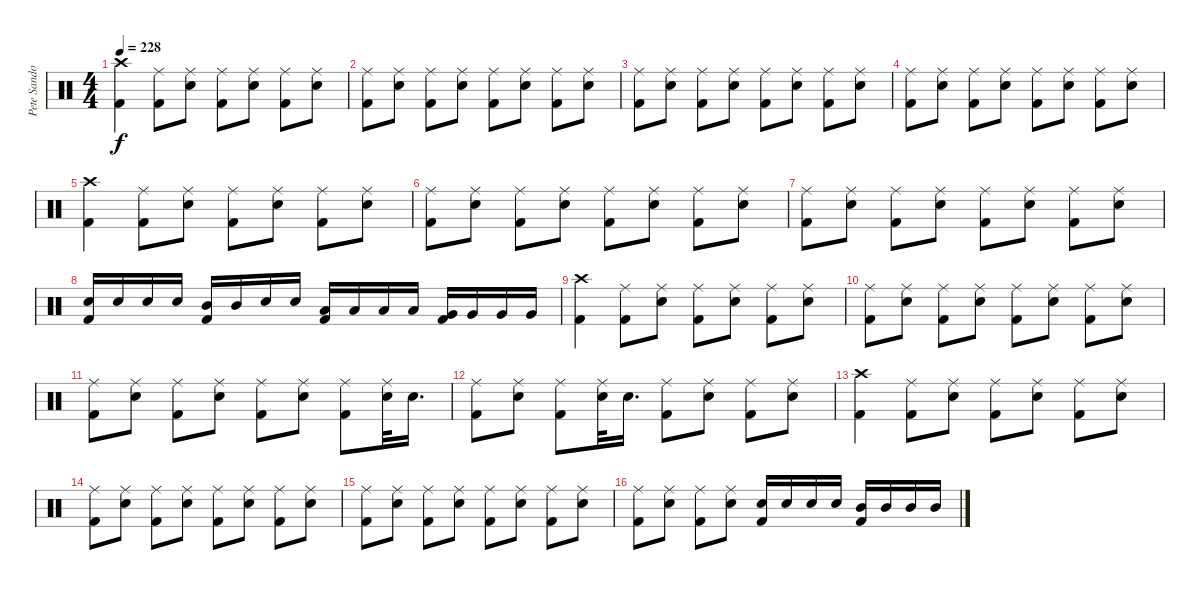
\track ("Pete Sandoval" "Pete Sando") {instrument percussion}
\staff {score}
\articulation defaults
\ts (4 4)
\tempo 228
\clef neutral
\ks c
("Crash high (hit)" "Kick (hit) 2").4{dy f} ("Kick (hit) 2" "Ride (middle)").8 ("Electric Snare (hit)" "Ride (middle)").8 ("Kick (hit) 2" "Ride (middle)").8 ("Electric Snare (hit)" "Ride (middle)").8 ("Kick (hit) 2" "Ride (middle)").8 ("Electric Snare (hit)" "Ride (middle)").8 |
("Kick (hit) 2" "Ride (middle)").8 ("Electric Snare (hit)" "Ride (middle)").8 ("Kick (hit) 2" "Ride (middle)").8 ("Electric Snare (hit)" "Ride (middle)").8 ("Kick (hit) 2" "Ride (middle)").8 ("Electric Snare (hit)" "Ride (middle)").8 ("Kick (hit) 2" "Ride (middle)").8 ("Electric Snare (hit)" "Ride (middle)").8 |
("Kick (hit) 2" "Ride (middle)").8 ("Electric Snare (hit)" "Ride (middle)").8 ("Kick (hit) 2" "Ride (middle)").8 ("Electric Snare (hit)" "Ride (middle)").8 ("Kick (hit) 2" "Ride (middle)").8 ("Electric Snare (hit)" "Ride (middle)").8 ("Kick (hit) 2" "Ride (middle)").8 ("Electric Snare (hit)" "Ride (middle)").8 |
("Kick (hit) 2" "Ride (middle)").8 ("Electric Snare (hit)" "Ride (middle)").8 ("Kick (hit) 2" "Ride (middle)").8 ("Electric Snare (hit)" "Ride (middle)").8 ("Kick (hit) 2" "Ride (middle)").8 ("Electric Snare (hit)" "Ride (middle)").8 ("Kick (hit) 2" "Ride (middle)").8 ("Electric Snare (hit)" "Ride (middle)").8 |
("Crash high (hit)" "Kick (hit) 2").4 ("Kick (hit) 2" "Ride (middle)").8 ("Electric Snare (hit)" "Ride (middle)").8 ("Kick (hit) 2" "Ride (middle)").8 ("Electric Snare (hit)" "Ride (middle)").8 ("Kick (hit) 2" "Ride (middle)").8 ("Electric Snare (hit)" "Ride (middle)").8 |
("Kick (hit) 2" "Ride (middle)").8 ("Electric Snare (hit)" "Ride (middle)").8 ("Kick (hit) 2" "Ride (middle)").8 ("Electric Snare (hit)" "Ride (middle)").8 ("Kick (hit) 2" "Ride (middle)").8 ("Electric Snare (hit)" "Ride (middle)").8 ("Kick (hit) 2" "Ride (middle)").8 ("Electric Snare (hit)" "Ride (middle)").8 |
("Kick (hit) 2" "Ride (middle)").8 ("Electric Snare (hit)" "Ride (middle)").8 ("Kick (hit) 2" "Ride (middle)").8 ("Electric Snare (hit)" "Ride (middle)").8 ("Kick (hit) 2" "Ride (middle)").8 ("Electric Snare (hit)" "Ride (middle)").8 ("Kick (hit) 2" "Ride (middle)").8 ("Electric Snare (hit)" "Ride (middle)").8 |
("Kick (hit) 2" "Electric Snare (hit)").16 "Electric Snare (hit)".16 "Electric Snare (hit)".16 "Electric Snare (hit)".16 ("Kick (hit) 2" "Mid Tom (hit)").16 "Mid Tom (hit)".16 "Electric Snare (hit)".16 "Electric Snare (hit)".16 ("Kick (hit) 2" "Low Tom (hit)").16 "Low Tom (hit)".16 "Low Tom (hit)".16 "Low Tom (hit)".16 ("Kick (hit) 2" "Very Low Tom (hit)").16 "Very Low Tom (hit)".16 "Very Low Tom (hit)".16 "Very Low Tom (hit)".16 |
("Crash high (hit)" "Kick (hit) 2").4 ("Kick (hit) 2" "Ride (middle)").8 ("Electric Snare (hit)" "Ride (middle)").8 ("Kick (hit) 2" "Ride (middle)").8 ("Electric Snare (hit)" "Ride (middle)").8 ("Kick (hit) 2" "Ride (middle)").8 ("Electric Snare (hit)" "Ride (middle)").8 |
("Kick (hit) 2" "Ride (middle)").8 ("Electric Snare (hit)" "Ride (middle)").8 ("Kick (hit) 2" "Ride (middle)").8 ("Electric Snare (hit)" "Ride (middle)").8 ("Kick (hit) 2" "Ride (middle)").8 ("Electric Snare (hit)" "Ride (middle)").8 ("Kick (hit) 2" "Ride (middle)").8 ("Electric Snare (hit)" "Ride (middle)").8 |
("Kick (hit) 2" "Ride (middle)").8 ("Electric Snare (hit)" "Ride (middle)").8 ("Kick (hit) 2" "Ride (middle)").8 ("Electric Snare (hit)" "Ride (middle)").8 ("Kick (hit) 2" "Ride (middle)").8 ("Electric Snare (hit)" "Ride (middle)").8 ("Kick (hit) 2" "Ride (middle)").8 ("Electric Snare (hit)" "Ride (middle)").32 "Electric Snare (hit)".16{d} |
("Kick (hit) 2" "Ride (middle)").8 ("Electric Snare (hit)" "Ride (middle)").8 ("Kick (hit) 2" "Ride (middle)").8 ("Electric Snare (hit)" "Ride (middle)").32 "Electric Snare (hit)".16{d} ("Kick (hit) 2" "Ride (middle)").8 ("Electric Snare (hit)" "Ride (middle)").8 ("Kick (hit) 2" "Ride (middle)").8 ("Electric Snare (hit)" "Ride (middle)").8 |
("Crash high (hit)" "Kick (hit) 2").4 ("Kick (hit) 2" "Ride (middle)").8 ("Electric Snare (hit)" "Ride (middle)").8 ("Kick (hit) 2" "Ride (middle)").8 ("Electric Snare (hit)" "Ride (middle)").8 ("Kick (hit) 2" "Ride (middle)").8 ("Electric Snare (hit)" "Ride (middle)").8 |
("Kick (hit) 2" "Ride (middle)").8 ("Electric Snare (hit)" "Ride (middle)").8 ("Kick (hit) 2" "Ride (middle)").8 ("Electric Snare (hit)" "Ride (middle)").8 ("Kick (hit) 2" "Ride (middle)").8 ("Electric Snare (hit)" "Ride (middle)").8 ("Kick (hit) 2" "Ride (middle)").8 ("Electric Snare (hit)" "Ride (middle)").8 |
("Kick (hit) 2" "Ride (middle)").8 ("Electric Snare (hit)" "Ride (middle)").8 ("Kick (hit) 2" "Ride (middle)").8 ("Electric Snare (hit)" "Ride (middle)").8 ("Kick (hit) 2" "Ride (middle)").8 ("Electric Snare (hit)" "Ride (middle)").8 ("Kick (hit) 2" "Ride (middle)").8 ("Electric Snare (hit)" "Ride (middle)").8 |
("Kick (hit) 2" "Ride (middle)").8 ("Electric Snare (hit)" "Ride (middle)").8 ("Kick (hit) 2" "Ride (middle)").8 ("Electric Snare (hit)" "Ride (middle)").8 ("Kick (hit) 2" "Electric Snare (hit)").16 "Electric Snare (hit)".16 "Electric Snare (hit)".16 "Electric Snare (hit)".16 ("Kick (hit) 2" "Mid Tom (hit)").16 "Mid Tom (hit)".16 "Mid Tom (hit)".16 "Mid Tom (hit)".16
